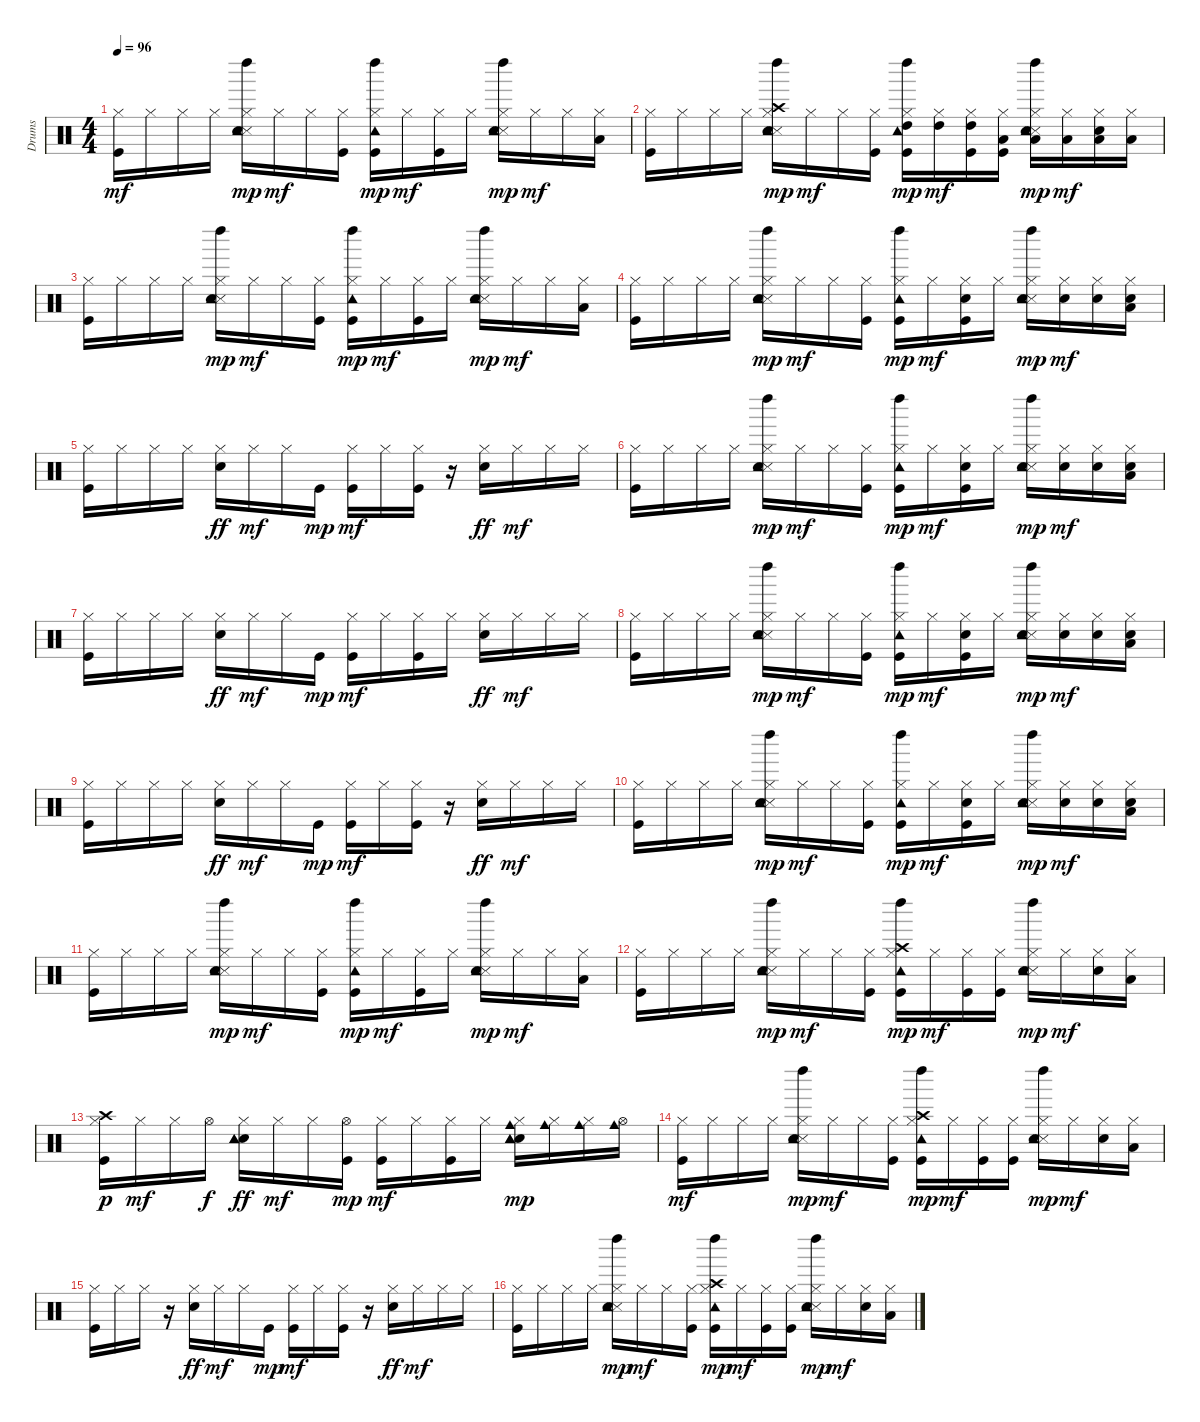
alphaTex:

\track ("Drums" "Drums") {instrument percussion}
\staff {score}
\articulation defaults
\ts (4 4)
\tempo 96
\clef neutral
\ks c
("Kick (hit)" "Hi-Hat (closed)").16{dy mf} "Hi-Hat (closed)".16 "Hi-Hat (closed)".16 "Hi-Hat (closed)".16 ("Snare (side stick) 3" "Snare (hit) 2" "Hi-Hat (closed)" "Tambourine (hit)" "Left Maraca (hit)").16{dy mp} "Hi-Hat (closed)".16{dy mf} "Hi-Hat (closed)".16 ("Kick (hit)" "Hi-Hat (closed)").16 ("Kick (hit)" "Hi-Hat (closed)" "Tambourine (hit)" "Left Maraca (hit)").16{dy mp} "Hi-Hat (closed)".16{dy mf} ("Kick (hit)" "Hi-Hat (closed)").16 "Hi-Hat (closed)".16 ("Snare (side stick) 3" "Snare (hit) 2" "Hi-Hat (closed)" "Tambourine (hit)" "Left Maraca (hit)").16{dy mp} "Hi-Hat (closed)".16{dy mf} "Hi-Hat (closed)".16 ("Low Floor Tom (hit)" "Hi-Hat (closed)").16 |
("Kick (hit)" "Hi-Hat (closed)").16 "Hi-Hat (closed)".16 "Hi-Hat (closed)".16 "Hi-Hat (closed)".16 ("Snare (side stick) 3" "Snare (hit) 2" "Hi-Hat (closed)" "Crash high (hit)" "Tambourine (hit)" "Left Maraca (hit)").16{dy mp} "Hi-Hat (closed)".16{dy mf} "Hi-Hat (closed)".16 ("Kick (hit)" "Hi-Hat (closed)").16 ("Kick (hit)" "Hi-Hat (closed)" "High Tom (hit)" "Tambourine (hit)" "Left Maraca (hit)").16{dy mp} ("Hi-Hat (closed)" "High Tom (hit)").16{dy mf} ("Kick (hit)" "Hi-Hat (closed)" "High Tom (hit)").16 ("Kick (hit)" "Hi-Hat (closed)" "Low Tom (hit)").16 ("Snare (side stick) 3" "Snare (hit) 2" "Hi-Hat (closed)" "Low Tom (hit)" "Tambourine (hit)" "Left Maraca (hit)").16{dy mp} ("Hi-Hat (closed)" "Low Tom (hit)").16{dy mf} ("Snare (hit) 2" "Low Floor Tom (hit)" "Hi-Hat (closed)").16 ("Low Floor Tom (hit)" "Hi-Hat (closed)").16 |
("Kick (hit)" "Hi-Hat (closed)").16 "Hi-Hat (closed)".16 "Hi-Hat (closed)".16 "Hi-Hat (closed)".16 ("Snare (side stick) 3" "Snare (hit) 2" "Hi-Hat (closed)" "Tambourine (hit)" "Left Maraca (hit)").16{dy mp} "Hi-Hat (closed)".16{dy mf} "Hi-Hat (closed)".16 ("Kick (hit)" "Hi-Hat (closed)").16 ("Kick (hit)" "Hi-Hat (closed)" "Tambourine (hit)" "Left Maraca (hit)").16{dy mp} "Hi-Hat (closed)".16{dy mf} ("Kick (hit)" "Hi-Hat (closed)").16 "Hi-Hat (closed)".16 ("Snare (side stick) 3" "Snare (hit) 2" "Hi-Hat (closed)" "Tambourine (hit)" "Left Maraca (hit)").16{dy mp} "Hi-Hat (closed)".16{dy mf} "Hi-Hat (closed)".16 ("Low Floor Tom (hit)" "Hi-Hat (closed)").16 |
("Kick (hit)" "Hi-Hat (closed)").16 "Hi-Hat (closed)".16 "Hi-Hat (closed)".16 "Hi-Hat (closed)".16 ("Snare (side stick) 3" "Snare (hit) 2" "Hi-Hat (closed)" "Tambourine (hit)" "Left Maraca (hit)").16{dy mp} "Hi-Hat (closed)".16{dy mf} "Hi-Hat (closed)".16 ("Kick (hit)" "Hi-Hat (closed)").16 ("Kick (hit)" "Hi-Hat (closed)" "Tambourine (hit)" "Left Maraca (hit)").16{dy mp} "Hi-Hat (closed)".16{dy mf} ("Kick (hit)" "Snare (hit) 2" "Hi-Hat (closed)").16 "Hi-Hat (closed)".16 ("Snare (side stick) 3" "Snare (hit) 2" "Hi-Hat (closed)" "Tambourine (hit)" "Left Maraca (hit)").16{dy mp} ("Snare (hit) 2" "Hi-Hat (closed)").16{dy mf} ("Snare (hit) 2" "Hi-Hat (closed)").16 ("Snare (hit) 2" "Low Floor Tom (hit)" "Hi-Hat (closed)").16 |
("Kick (hit)" "Hi-Hat (closed)").16 "Hi-Hat (closed)".16 "Hi-Hat (closed)".16 "Hi-Hat (closed)".16 ("Snare (hit) 2" "Hi-Hat (closed)").16{dy ff} "Hi-Hat (closed)".16{dy mf} "Hi-Hat (closed)".16 "Kick (hit)".16{dy mp} ("Kick (hit)" "Hi-Hat (closed)").16{dy mf} "Hi-Hat (closed)".16 ("Kick (hit)" "Hi-Hat (closed)").16 r.16 ("Snare (hit) 2" "Hi-Hat (closed)").16{dy ff} "Hi-Hat (closed)".16{dy mf} "Hi-Hat (closed)".16 "Hi-Hat (closed)".16 |
("Kick (hit)" "Hi-Hat (closed)").16 "Hi-Hat (closed)".16 "Hi-Hat (closed)".16 "Hi-Hat (closed)".16 ("Snare (side stick) 3" "Snare (hit) 2" "Hi-Hat (closed)" "Tambourine (hit)" "Left Maraca (hit)").16{dy mp} "Hi-Hat (closed)".16{dy mf} "Hi-Hat (closed)".16 ("Kick (hit)" "Hi-Hat (closed)").16 ("Kick (hit)" "Hi-Hat (closed)" "Tambourine (hit)" "Left Maraca (hit)").16{dy mp} "Hi-Hat (closed)".16{dy mf} ("Kick (hit)" "Snare (hit) 2" "Hi-Hat (closed)").16 "Hi-Hat (closed)".16 ("Snare (side stick) 3" "Snare (hit) 2" "Hi-Hat (closed)" "Tambourine (hit)" "Left Maraca (hit)").16{dy mp} ("Snare (hit) 2" "Hi-Hat (closed)").16{dy mf} ("Snare (hit) 2" "Hi-Hat (closed)").16 ("Snare (hit) 2" "Low Floor Tom (hit)" "Hi-Hat (closed)").16 |
("Kick (hit)" "Hi-Hat (closed)").16 "Hi-Hat (closed)".16 "Hi-Hat (closed)".16 "Hi-Hat (closed)".16 ("Snare (hit) 2" "Hi-Hat (closed)").16{dy ff} "Hi-Hat (closed)".16{dy mf} "Hi-Hat (closed)".16 "Kick (hit)".16{dy mp} ("Kick (hit)" "Hi-Hat (closed)").16{dy mf} "Hi-Hat (closed)".16 ("Kick (hit)" "Hi-Hat (closed)").16 "Hi-Hat (closed)".16 ("Snare (hit) 2" "Hi-Hat (closed)").16{dy ff} "Hi-Hat (closed)".16{dy mf} "Hi-Hat (closed)".16 "Hi-Hat (closed)".16 |
("Kick (hit)" "Hi-Hat (closed)").16 "Hi-Hat (closed)".16 "Hi-Hat (closed)".16 "Hi-Hat (closed)".16 ("Snare (side stick) 3" "Snare (hit) 2" "Hi-Hat (closed)" "Tambourine (hit)" "Left Maraca (hit)").16{dy mp} "Hi-Hat (closed)".16{dy mf} "Hi-Hat (closed)".16 ("Kick (hit)" "Hi-Hat (closed)").16 ("Kick (hit)" "Hi-Hat (closed)" "Tambourine (hit)" "Left Maraca (hit)").16{dy mp} "Hi-Hat (closed)".16{dy mf} ("Kick (hit)" "Snare (hit) 2" "Hi-Hat (closed)").16 "Hi-Hat (closed)".16 ("Snare (side stick) 3" "Snare (hit) 2" "Hi-Hat (closed)" "Tambourine (hit)" "Left Maraca (hit)").16{dy mp} ("Snare (hit) 2" "Hi-Hat (closed)").16{dy mf} ("Snare (hit) 2" "Hi-Hat (closed)").16 ("Snare (hit) 2" "Low Floor Tom (hit)" "Hi-Hat (closed)").16 |
("Kick (hit)" "Hi-Hat (closed)").16 "Hi-Hat (closed)".16 "Hi-Hat (closed)".16 "Hi-Hat (closed)".16 ("Snare (hit) 2" "Hi-Hat (closed)").16{dy ff} "Hi-Hat (closed)".16{dy mf} "Hi-Hat (closed)".16 "Kick (hit)".16{dy mp} ("Kick (hit)" "Hi-Hat (closed)").16{dy mf} "Hi-Hat (closed)".16 ("Kick (hit)" "Hi-Hat (closed)").16 r.16 ("Snare (hit) 2" "Hi-Hat (closed)").16{dy ff} "Hi-Hat (closed)".16{dy mf} "Hi-Hat (closed)".16 "Hi-Hat (closed)".16 |
("Kick (hit)" "Hi-Hat (closed)").16 "Hi-Hat (closed)".16 "Hi-Hat (closed)".16 "Hi-Hat (closed)".16 ("Snare (side stick) 3" "Snare (hit) 2" "Hi-Hat (closed)" "Tambourine (hit)" "Left Maraca (hit)").16{dy mp} "Hi-Hat (closed)".16{dy mf} "Hi-Hat (closed)".16 ("Kick (hit)" "Hi-Hat (closed)").16 ("Kick (hit)" "Hi-Hat (closed)" "Tambourine (hit)" "Left Maraca (hit)").16{dy mp} "Hi-Hat (closed)".16{dy mf} ("Kick (hit)" "Snare (hit) 2" "Hi-Hat (closed)").16 "Hi-Hat (closed)".16 ("Snare (side stick) 3" "Snare (hit) 2" "Hi-Hat (closed)" "Tambourine (hit)" "Left Maraca (hit)").16{dy mp} ("Snare (hit) 2" "Hi-Hat (closed)").16{dy mf} ("Snare (hit) 2" "Hi-Hat (closed)").16 ("Snare (hit) 2" "Low Floor Tom (hit)" "Hi-Hat (closed)").16 |
("Kick (hit)" "Hi-Hat (closed)").16 "Hi-Hat (closed)".16 "Hi-Hat (closed)".16 "Hi-Hat (closed)".16 ("Snare (side stick) 3" "Snare (hit) 2" "Hi-Hat (closed)" "Tambourine (hit)" "Left Maraca (hit)").16{dy mp} "Hi-Hat (closed)".16{dy mf} "Hi-Hat (closed)".16 ("Kick (hit)" "Hi-Hat (closed)").16 ("Kick (hit)" "Hi-Hat (closed)" "Tambourine (hit)" "Left Maraca (hit)").16{dy mp} "Hi-Hat (closed)".16{dy mf} ("Kick (hit)" "Hi-Hat (closed)").16 "Hi-Hat (closed)".16 ("Snare (side stick) 3" "Snare (hit) 2" "Hi-Hat (closed)" "Tambourine (hit)" "Left Maraca (hit)").16{dy mp} "Hi-Hat (closed)".16{dy mf} "Hi-Hat (closed)".16 ("Low Floor Tom (hit)" "Hi-Hat (closed)").16 |
("Kick (hit)" "Hi-Hat (closed)").16 "Hi-Hat (closed)".16 "Hi-Hat (closed)".16 "Hi-Hat (closed)".16 ("Snare (side stick) 3" "Snare (hit) 2" "Hi-Hat (closed)" "Tambourine (hit)" "Left Maraca (hit)").16{dy mp} "Hi-Hat (closed)".16{dy mf} "Hi-Hat (closed)".16 ("Kick (hit)" "Hi-Hat (closed)").16 ("Kick (hit)" "Hi-Hat (closed)" "Crash high (hit)" "Tambourine (hit)" "Left Maraca (hit)").16{dy mp} "Hi-Hat (closed)".16{dy mf} ("Kick (hit)" "Hi-Hat (closed)").16 ("Kick (hit)" "Hi-Hat (closed)").16 ("Snare (side stick) 3" "Snare (hit) 2" "Hi-Hat (closed)" "Tambourine (hit)" "Left Maraca (hit)").16{dy mp} "Hi-Hat (closed)".16{dy mf} ("Snare (hit) 2" "Hi-Hat (closed)").16 ("Low Floor Tom (hit)" "Hi-Hat (closed)").16 |
("Kick (hit)" "Hi-Hat (closed)" "Crash high (hit)").16{dy p} "Hi-Hat (closed)".16{dy mf} "Hi-Hat (closed)".16 "Hi-Hat (open)".16{dy f} ("Snare (hit) 2" "Hi-Hat (closed)" "Tambourine (hit)" "Tambourine (hit)").16{dy ff} "Hi-Hat (closed)".16{dy mf} "Hi-Hat (closed)".16 ("Kick (hit)" "Hi-Hat (open)").16{dy mp} ("Kick (hit)" "Hi-Hat (closed)").16{dy mf} "Hi-Hat (closed)".16 ("Kick (hit)" "Hi-Hat (closed)").16 "Hi-Hat (closed)".16 ("Snare (hit) 2" "Hi-Hat (closed)" "Tambourine (hit)" "Tambourine (hit)" "Cowbell medium (hit)").16{dy mp} ("Hi-Hat (closed)" "Cowbell medium (hit)").16 ("Hi-Hat (closed)" "Cowbell medium (hit)").16 ("Hi-Hat (open)" "Cowbell medium (hit)").16 |
("Kick (hit)" "Hi-Hat (closed)").16{dy mf} "Hi-Hat (closed)".16 "Hi-Hat (closed)".16 "Hi-Hat (closed)".16 ("Snare (side stick) 3" "Snare (hit) 2" "Hi-Hat (closed)" "Tambourine (hit)" "Left Maraca (hit)").16{dy mp} "Hi-Hat (closed)".16{dy mf} "Hi-Hat (closed)".16 ("Kick (hit)" "Hi-Hat (closed)").16 ("Kick (hit)" "Hi-Hat (closed)" "Crash high (hit)" "Tambourine (hit)" "Left Maraca (hit)").16{dy mp} "Hi-Hat (closed)".16{dy mf} ("Kick (hit)" "Hi-Hat (closed)").16 ("Kick (hit)" "Hi-Hat (closed)").16 ("Snare (side stick) 3" "Snare (hit) 2" "Hi-Hat (closed)" "Tambourine (hit)" "Left Maraca (hit)").16{dy mp} "Hi-Hat (closed)".16{dy mf} ("Snare (hit) 2" "Hi-Hat (closed)").16 ("Low Floor Tom (hit)" "Hi-Hat (closed)").16 |
("Kick (hit)" "Hi-Hat (closed)").16 "Hi-Hat (closed)".16 "Hi-Hat (closed)".16 r.16 ("Snare (hit) 2" "Hi-Hat (closed)").16{dy ff} "Hi-Hat (closed)".16{dy mf} "Hi-Hat (closed)".16 "Kick (hit)".16{dy mp} ("Kick (hit)" "Hi-Hat (closed)").16{dy mf} "Hi-Hat (closed)".16 ("Kick (hit)" "Hi-Hat (closed)").16 r.16 ("Snare (hit) 2" "Hi-Hat (closed)").16{dy ff} "Hi-Hat (closed)".16{dy mf} "Hi-Hat (closed)".16 "Hi-Hat (closed)".16 |
("Kick (hit)" "Hi-Hat (closed)").16 "Hi-Hat (closed)".16 "Hi-Hat (closed)".16 "Hi-Hat (closed)".16 ("Snare (side stick) 3" "Snare (hit) 2" "Hi-Hat (closed)" "Tambourine (hit)" "Left Maraca (hit)").16{dy mp} "Hi-Hat (closed)".16{dy mf} "Hi-Hat (closed)".16 ("Kick (hit)" "Hi-Hat (closed)").16 ("Kick (hit)" "Hi-Hat (closed)" "Crash high (hit)" "Tambourine (hit)" "Left Maraca (hit)").16{dy mp} "Hi-Hat (closed)".16{dy mf} ("Kick (hit)" "Hi-Hat (closed)").16 ("Kick (hit)" "Hi-Hat (closed)").16 ("Snare (side stick) 3" "Snare (hit) 2" "Hi-Hat (closed)" "Tambourine (hit)" "Left Maraca (hit)").16{dy mp} "Hi-Hat (closed)".16{dy mf} ("Snare (hit) 2" "Hi-Hat (closed)").16 ("Low Floor Tom (hit)" "Hi-Hat (closed)").16
